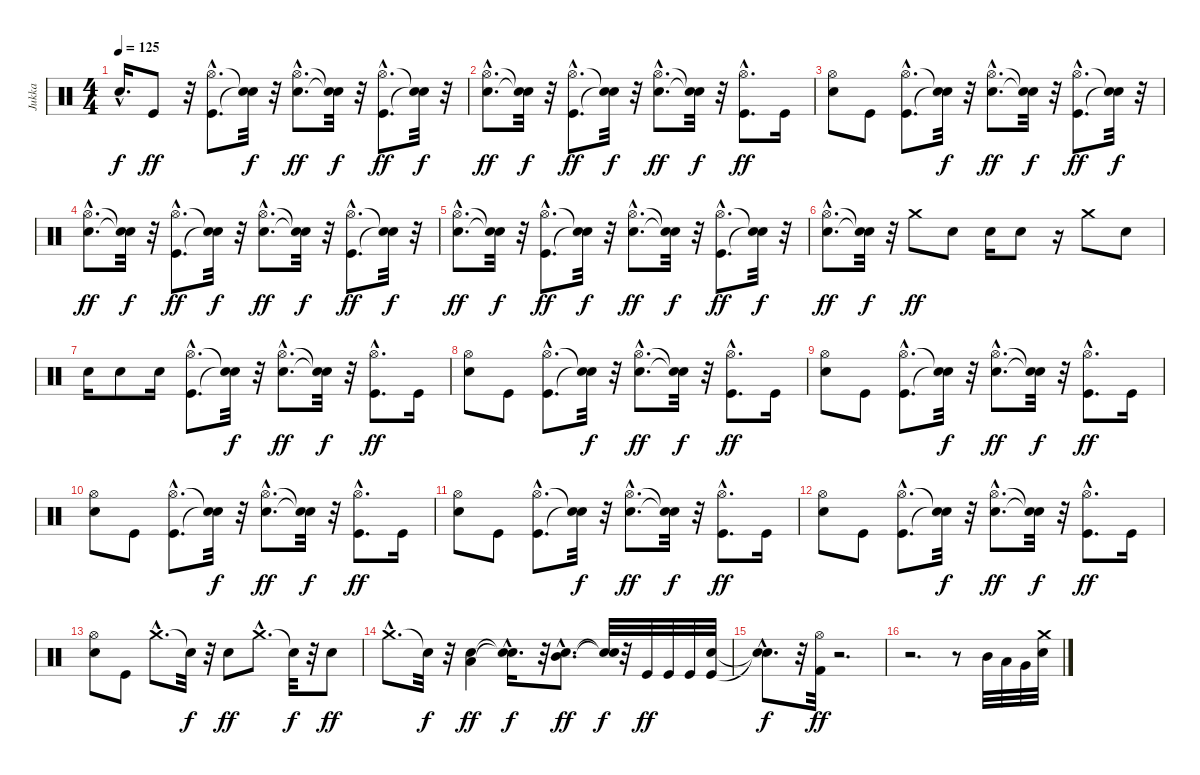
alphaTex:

\track ("Jukka" "Jukka") {instrument percussion}
\staff {score}
\articulation defaults
\ts (4 4)
\tempo 125
\clef neutral
\ks c "Snare (hit)"{hac t}.16{d dy f} "Kick (hit)".8{dy ff}
r.32 ("Kick (hit)"{hac} "Hi-Hat (open)"{hac}).8{d} ("Snare (hit)"{t} "Snare (hit)"{t}).32{dy f} r.32 ("Electric Snare (hit)"{hac} "Hi-Hat (open)"{hac}).8{d dy ff} ("Snare (hit)"{t} "Snare (hit)"{t}).32{dy f} r.32 ("Kick (hit)"{hac} "Hi-Hat (open)"{hac}).8{d dy ff} ("Snare (hit)"{t} "Snare (hit)"{t}).32{dy f} r.32 |
("Electric Snare (hit)"{hac} "Hi-Hat (open)"{hac}).8{d dy ff} ("Snare (hit)"{t} "Snare (hit)"{t}).32{dy f} r.32 ("Kick (hit)"{hac} "Hi-Hat (open)"{hac}).8{d dy ff} ("Snare (hit)"{t} "Snare (hit)"{t}).32{dy f} r.32 ("Electric Snare (hit)"{hac} "Hi-Hat (open)"{hac}).8{d dy ff} ("Snare (hit)"{t} "Snare (hit)"{t}).32{dy f} r.32 ("Kick (hit)"{hac} "Hi-Hat (open)"{hac}).8{d dy ff} "Kick (hit)".16 |
("Electric Snare (hit)" "Hi-Hat (open)").8 "Kick (hit)".8 ("Kick (hit)"{hac} "Hi-Hat (open)"{hac}).8{d} ("Snare (hit)"{t} "Snare (hit)"{t}).32{dy f} r.32 ("Electric Snare (hit)"{hac} "Hi-Hat (open)"{hac}).8{d dy ff} ("Snare (hit)"{t} "Snare (hit)"{t}).32{dy f} r.32 ("Kick (hit)"{hac} "Hi-Hat (open)"{hac}).8{d dy ff} ("Snare (hit)"{t} "Snare (hit)"{t}).32{dy f} r.32 |
("Electric Snare (hit)"{hac} "Hi-Hat (open)"{hac}).8{d dy ff} ("Snare (hit)"{t} "Snare (hit)"{t}).32{dy f} r.32 ("Kick (hit)"{hac} "Hi-Hat (open)"{hac}).8{d dy ff} ("Snare (hit)"{t} "Snare (hit)"{t}).32{dy f} r.32 ("Electric Snare (hit)"{hac} "Hi-Hat (open)"{hac}).8{d dy ff} ("Snare (hit)"{t} "Snare (hit)"{t}).32{dy f} r.32 ("Kick (hit)"{hac} "Hi-Hat (open)"{hac}).8{d dy ff} ("Snare (hit)"{t} "Snare (hit)"{t}).32{dy f} r.32 |
("Electric Snare (hit)"{hac} "Hi-Hat (open)"{hac}).8{d dy ff} ("Snare (hit)"{t} "Snare (hit)"{t}).32{dy f} r.32 ("Kick (hit)"{hac} "Hi-Hat (open)"{hac}).8{d dy ff} ("Snare (hit)"{t} "Snare (hit)"{t}).32{dy f} r.32 ("Electric Snare (hit)"{hac} "Hi-Hat (open)"{hac}).8{d dy ff} ("Snare (hit)"{t} "Snare (hit)"{t}).32{dy f} r.32 ("Kick (hit)"{hac} "Hi-Hat (open)"{hac}).8{d dy ff} ("Snare (hit)"{t} "Snare (hit)"{t}).32{dy f} r.32 |
("Electric Snare (hit)"{hac} "Hi-Hat (open)"{hac}).8{d dy ff} ("Snare (hit)"{t} "Snare (hit)"{t}).32{dy f} r.32 "Crash medium (hit)".8{dy ff} "Electric Snare (hit)".8 "Electric Snare (hit)".16 "Electric Snare (hit)".8 r.16 "Crash medium (hit)".8 "Electric Snare (hit)".8 |
"Electric Snare (hit)".16 "Electric Snare (hit)".8 "Electric Snare (hit)".16 ("Kick (hit)"{hac} "Hi-Hat (open)"{hac}).8{d} ("Snare (hit)"{t} "Snare (hit)"{t}).32{dy f} r.32 ("Electric Snare (hit)"{hac} "Hi-Hat (open)"{hac}).8{d dy ff} ("Snare (hit)"{t} "Snare (hit)"{t}).32{dy f} r.32 ("Kick (hit)"{hac} "Hi-Hat (open)"{hac}).8{d dy ff} "Kick (hit)".16 |
("Electric Snare (hit)" "Hi-Hat (open)").8 "Kick (hit)".8 ("Kick (hit)"{hac} "Hi-Hat (open)"{hac}).8{d} ("Snare (hit)"{t} "Snare (hit)"{t}).32{dy f} r.32 ("Electric Snare (hit)"{hac} "Hi-Hat (open)"{hac}).8{d dy ff} ("Snare (hit)"{t} "Snare (hit)"{t}).32{dy f} r.32 ("Kick (hit)"{hac} "Hi-Hat (open)"{hac}).8{d dy ff} "Kick (hit)".16 |
("Electric Snare (hit)" "Hi-Hat (open)").8 "Kick (hit)".8 ("Kick (hit)"{hac} "Hi-Hat (open)"{hac}).8{d} ("Snare (hit)"{t} "Snare (hit)"{t}).32{dy f} r.32 ("Electric Snare (hit)"{hac} "Hi-Hat (open)"{hac}).8{d dy ff} ("Snare (hit)"{t} "Snare (hit)"{t}).32{dy f} r.32 ("Kick (hit)"{hac} "Hi-Hat (open)"{hac}).8{d dy ff} "Kick (hit)".16 |
("Electric Snare (hit)" "Hi-Hat (open)").8 "Kick (hit)".8 ("Kick (hit)"{hac} "Hi-Hat (open)"{hac}).8{d} ("Snare (hit)"{t} "Snare (hit)"{t}).32{dy f} r.32 ("Electric Snare (hit)"{hac} "Hi-Hat (open)"{hac}).8{d dy ff} ("Snare (hit)"{t} "Snare (hit)"{t}).32{dy f} r.32 ("Kick (hit)"{hac} "Hi-Hat (open)"{hac}).8{d dy ff} "Kick (hit)".16 |
("Electric Snare (hit)" "Hi-Hat (open)").8 "Kick (hit)".8 ("Kick (hit)"{hac} "Hi-Hat (open)"{hac}).8{d} ("Snare (hit)"{t} "Snare (hit)"{t}).32{dy f} r.32 ("Electric Snare (hit)"{hac} "Hi-Hat (open)"{hac}).8{d dy ff} ("Snare (hit)"{t} "Snare (hit)"{t}).32{dy f} r.32 ("Kick (hit)"{hac} "Hi-Hat (open)"{hac}).8{d dy ff} "Kick (hit)".16 |
("Electric Snare (hit)" "Hi-Hat (open)").8 "Kick (hit)".8 ("Kick (hit)"{hac} "Hi-Hat (open)"{hac}).8{d} ("Snare (hit)"{t} "Snare (hit)"{t}).32{dy f} r.32 ("Electric Snare (hit)"{hac} "Hi-Hat (open)"{hac}).8{d dy ff} ("Snare (hit)"{t} "Snare (hit)"{t}).32{dy f} r.32 ("Kick (hit)"{hac} "Hi-Hat (open)"{hac}).8{d dy ff} "Kick (hit)".16 |
("Electric Snare (hit)" "Hi-Hat (open)").8 "Kick (hit)".8 "Crash medium (hit)"{hac}.8{d} "Snare (hit)"{t}.32{dy f} r.32 "Snare (hit) 2".8{dy ff} "Crash medium (hit)"{hac}.8{d} "Snare (hit)"{t}.32{dy f} r.32 "Snare (hit) 2".8{dy ff} |
"Crash medium (hit)"{hac}.8{d} "Snare (hit)"{t}.32{dy f} r.32 ("Electric Snare (hit)" "Low Tom (hit)").4{dy ff} ("Snare (hit)"{hac t} "Snare (hit)"{hac t}).16{d dy f} r.32 ("Electric Snare (hit)"{hac} "Mid Tom (hit)"{hac}).8{d dy ff} ("Snare (hit)"{t} "Snare (hit)"{t}).32{dy f} r.32 "Kick (hit)".32{dy ff} "Kick (hit)".32 "Kick (hit)".32 ("Kick (hit)" "Electric Snare (hit)").32 |
("Snare (hit)"{hac t} "Snare (hit)"{hac t}).8{d dy f} r.32 ("Kick (hit) 2" "Hi-Hat (open)").32{dy ff} r.2{d} |
r.2{d} r.8 "Mid Tom (hit)".32 "Low Tom (hit)".32 "Very Low Tom (hit)".32 ("Electric Snare (hit)" "Crash medium (hit)").32
